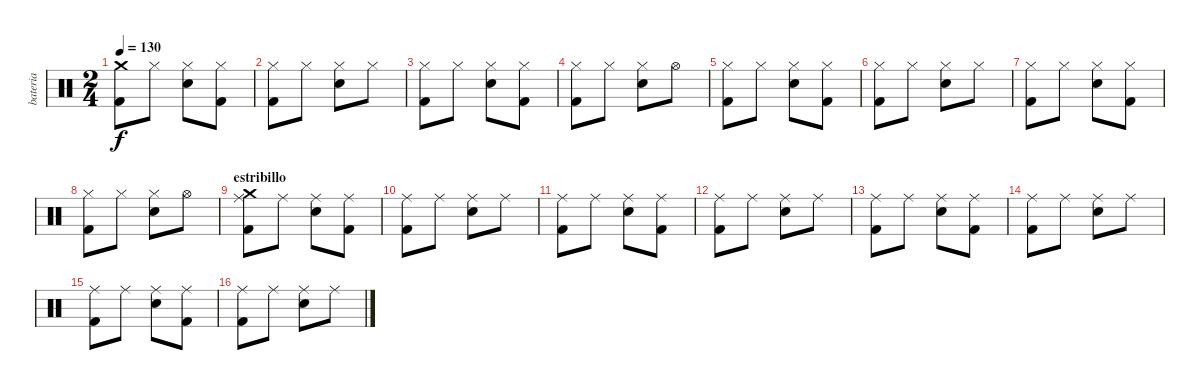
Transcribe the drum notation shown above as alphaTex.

\track ("bateria" "bateria") {instrument percussion}
\staff {score}
\articulation defaults
\ts (2 4)
\tempo 130
\clef neutral
\ks c
("Crash medium (hit)" "Kick (hit) 2").8{dy f} "Hi-Hat (closed)".8 ("Hi-Hat (closed)" "Electric Snare (hit)").8 ("Hi-Hat (closed)" "Kick (hit) 2").8 |
("Hi-Hat (closed)" "Kick (hit) 2").8 "Hi-Hat (closed)".8 ("Hi-Hat (closed)" "Electric Snare (hit)").8 "Hi-Hat (closed)".8 |
("Hi-Hat (closed)" "Kick (hit) 2").8 "Hi-Hat (closed)".8 ("Hi-Hat (closed)" "Electric Snare (hit)").8 ("Hi-Hat (closed)" "Kick (hit) 2").8 |
("Hi-Hat (closed)" "Kick (hit) 2").8 "Hi-Hat (closed)".8 ("Hi-Hat (closed)" "Electric Snare (hit)").8 "Hi-Hat (open)".8 |
("Hi-Hat (closed)" "Kick (hit) 2").8 "Hi-Hat (closed)".8 ("Hi-Hat (closed)" "Electric Snare (hit)").8 ("Hi-Hat (closed)" "Kick (hit) 2").8 |
("Hi-Hat (closed)" "Kick (hit) 2").8 "Hi-Hat (closed)".8 ("Hi-Hat (closed)" "Electric Snare (hit)").8 "Hi-Hat (closed)".8 |
("Hi-Hat (closed)" "Kick (hit) 2").8 "Hi-Hat (closed)".8 ("Hi-Hat (closed)" "Electric Snare (hit)").8 ("Hi-Hat (closed)" "Kick (hit) 2").8 |
("Hi-Hat (closed)" "Kick (hit) 2").8 "Hi-Hat (closed)".8 ("Hi-Hat (closed)" "Electric Snare (hit)").8 "Hi-Hat (open)".8 |
\section ("" "estribillo")
("Crash medium (hit)" "Ride (middle)" "Kick (hit) 2").8 "Ride (middle)".8 ("Ride (middle)" "Electric Snare (hit)").8 ("Ride (middle)" "Kick (hit) 2").8 |
("Ride (middle)" "Kick (hit) 2").8 "Ride (middle)".8 ("Ride (middle)" "Electric Snare (hit)").8 "Ride (middle)".8 |
("Ride (middle)" "Kick (hit) 2").8 "Ride (middle)".8 ("Ride (middle)" "Electric Snare (hit)").8 ("Ride (middle)" "Kick (hit) 2").8 |
("Ride (middle)" "Kick (hit) 2").8 "Ride (middle)".8 ("Ride (middle)" "Electric Snare (hit)").8 "Ride (middle)".8 |
("Ride (middle)" "Kick (hit) 2").8 "Ride (middle)".8 ("Ride (middle)" "Electric Snare (hit)").8 ("Ride (middle)" "Kick (hit) 2").8 |
("Ride (middle)" "Kick (hit) 2").8 "Ride (middle)".8 ("Ride (middle)" "Electric Snare (hit)").8 "Ride (middle)".8 |
("Ride (middle)" "Kick (hit) 2").8 "Ride (middle)".8 ("Ride (middle)" "Electric Snare (hit)").8 ("Ride (middle)" "Kick (hit) 2").8 |
("Ride (middle)" "Kick (hit) 2").8 "Ride (middle)".8 ("Ride (middle)" "Electric Snare (hit)").8 "Ride (middle)".8
